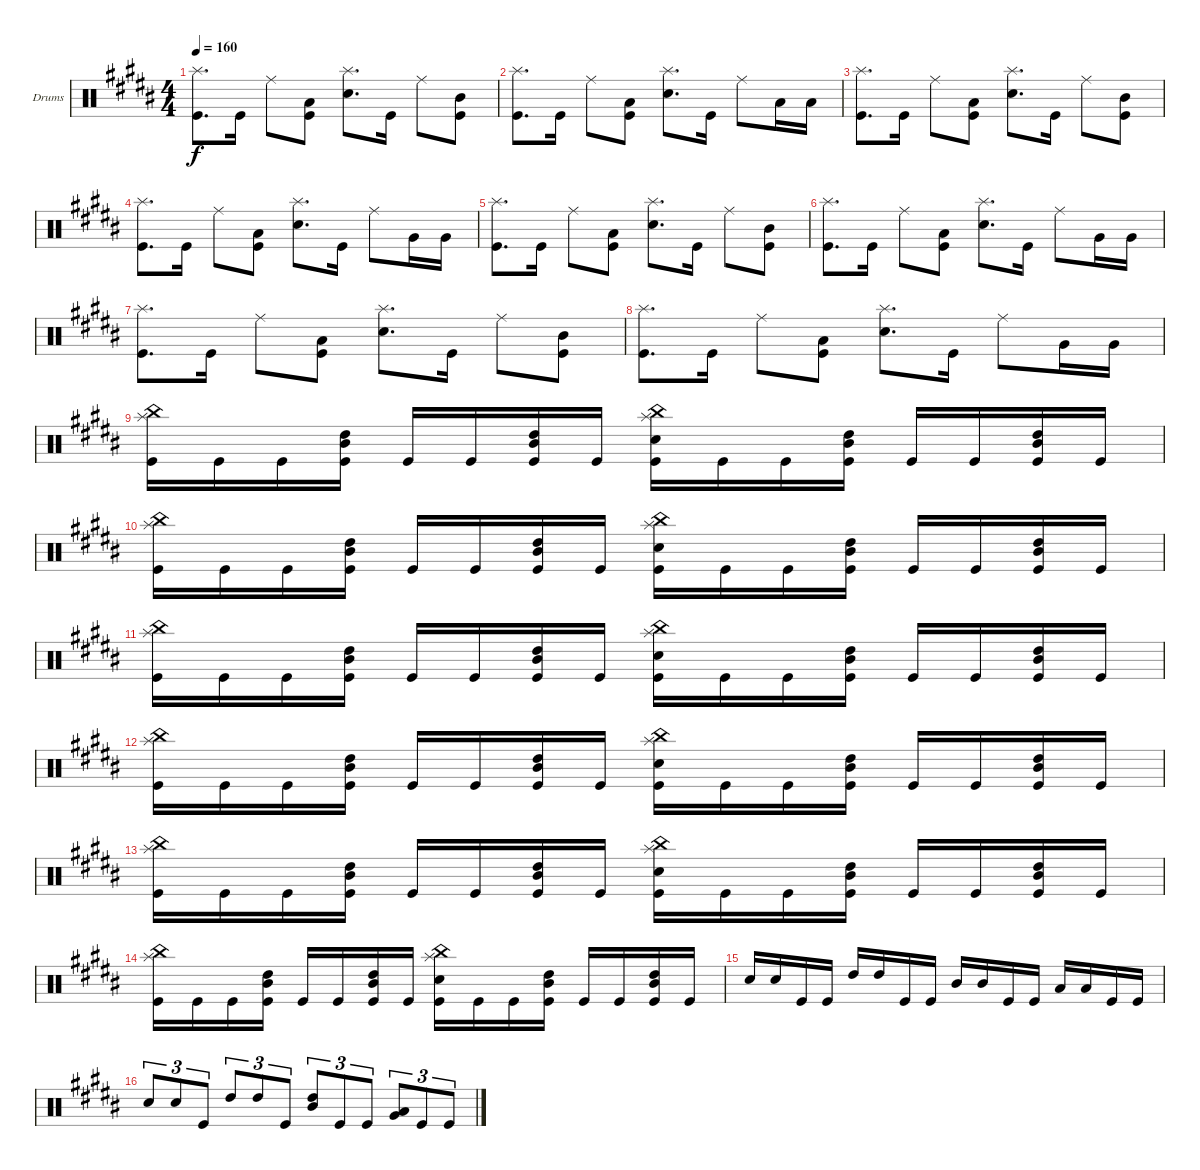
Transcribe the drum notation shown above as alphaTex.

\defaultSystemsLayout 4
\bracketExtendMode groupsimilarinstruments
\firstSystemTrackNameOrientation horizontal
\otherSystemsTrackNameOrientation horizontal
\track ("Drumkit" "Drums") {instrument percussion}
\staff {score}
\articulation defaults
\ts (4 4)
\tempo 160
\clef neutral
\scale
0.549407
\ks b
("Splash (hit)" "Kick (hit)").8{d dy f} "Kick (hit)".16 "Ride (middle)".8 ("Kick (hit)" "Low Tom (hit)").8 ("Snare (hit) 2" "Splash (hit)").8{d} "Kick (hit)".16 "Ride (middle)".8 ("Kick (hit)" "Mid Tom (hit)").8 |
\scale
0.225296 ("Splash (hit)" "Kick (hit)").8{d} "Kick (hit)".16 "Ride (middle)".8 ("Kick (hit)" "Low Tom (hit)").8 ("Snare (hit) 2" "Splash (hit)").8{d} "Kick (hit)".16 "Ride (middle)".8 "Low Tom (hit)".16 "Low Tom (hit)".16 |
\scale
0.225296 ("Splash (hit)" "Kick (hit)").8{d} "Kick (hit)".16 "Ride (middle)".8 ("Kick (hit)" "Low Tom (hit)").8 ("Snare (hit) 2" "Splash (hit)").8{d} "Kick (hit)".16 "Ride (middle)".8 ("Kick (hit)" "Mid Tom (hit)").8 |
\scale
0.333333 ("Splash (hit)" "Kick (hit)").8{d} "Kick (hit)".16 "Ride (middle)".8 ("Kick (hit)" "Low Tom (hit)").8 ("Snare (hit) 2" "Splash (hit)").8{d} "Kick (hit)".16 "Ride (middle)".8 "Very Low Tom (hit)".16 "Very Low Tom (hit)".16 |
\scale
0.333333 ("Splash (hit)" "Kick (hit)").8{d} "Kick (hit)".16 "Ride (middle)".8 ("Kick (hit)" "Low Tom (hit)").8 ("Snare (hit) 2" "Splash (hit)").8{d} "Kick (hit)".16 "Ride (middle)".8 ("Kick (hit)" "Mid Tom (hit)").8 |
\scale
0.333333 ("Splash (hit)" "Kick (hit)").8{d} "Kick (hit)".16 "Ride (middle)".8 ("Kick (hit)" "Low Tom (hit)").8 ("Snare (hit) 2" "Splash (hit)").8{d} "Kick (hit)".16 "Ride (middle)".8 "Very Low Tom (hit)".16 "Very Low Tom (hit)".16 |
\scale
0.333333 ("Splash (hit)" "Kick (hit)").8{d} "Kick (hit)".16 "Ride (middle)".8 ("Kick (hit)" "Low Tom (hit)").8 ("Snare (hit) 2" "Splash (hit)").8{d} "Kick (hit)".16 "Ride (middle)".8 ("Kick (hit)" "Mid Tom (hit)").8 |
\scale
0.333333 ("Splash (hit)" "Kick (hit)").8{d} "Kick (hit)".16 "Ride (middle)".8 ("Kick (hit)" "Low Tom (hit)").8 ("Snare (hit) 2" "Splash (hit)").8{d} "Kick (hit)".16 "Ride (middle)".8 "Very Low Tom (hit)".16 "Very Low Tom (hit)".16 |
\scale
0.333333 ("Kick (hit)" "Splash (hit)" "China (hit)").16 "Kick (hit)".16 "Kick (hit)".16 ("Kick (hit)" "Mid Tom (hit)" "High Tom (hit)").16 "Kick (hit)".16 "Kick (hit)".16 ("Kick (hit)" "Mid Tom (hit)" "High Tom (hit)").16 "Kick (hit)".16 ("Kick (hit)" "China (hit)" "Splash (hit)" "Snare (hit) 2").16 "Kick (hit)".16 "Kick (hit)".16 ("Kick (hit)" "High Tom (hit)" "Mid Tom (hit)").16 "Kick (hit)".16 "Kick (hit)".16 ("Kick (hit)" "Mid Tom (hit)" "High Tom (hit)").16 "Kick (hit)".16 |
\scale
0.333333 ("Kick (hit)" "Splash (hit)" "China (hit)").16 "Kick (hit)".16 "Kick (hit)".16 ("Kick (hit)" "Mid Tom (hit)" "High Tom (hit)").16 "Kick (hit)".16 "Kick (hit)".16 ("Kick (hit)" "Mid Tom (hit)" "High Tom (hit)").16 "Kick (hit)".16 ("Kick (hit)" "China (hit)" "Splash (hit)" "Snare (hit) 2").16 "Kick (hit)".16 "Kick (hit)".16 ("Kick (hit)" "High Tom (hit)" "Mid Tom (hit)").16 "Kick (hit)".16 "Kick (hit)".16 ("Kick (hit)" "Mid Tom (hit)" "High Tom (hit)").16 "Kick (hit)".16 |
\scale
0.333333 ("Kick (hit)" "Splash (hit)" "China (hit)").16 "Kick (hit)".16 "Kick (hit)".16 ("Kick (hit)" "Mid Tom (hit)" "High Tom (hit)").16 "Kick (hit)".16 "Kick (hit)".16 ("Kick (hit)" "Mid Tom (hit)" "High Tom (hit)").16 "Kick (hit)".16 ("Kick (hit)" "China (hit)" "Splash (hit)" "Snare (hit) 2").16 "Kick (hit)".16 "Kick (hit)".16 ("Kick (hit)" "High Tom (hit)" "Mid Tom (hit)").16 "Kick (hit)".16 "Kick (hit)".16 ("Kick (hit)" "Mid Tom (hit)" "High Tom (hit)").16 "Kick (hit)".16 |
\scale
0.333333 ("Kick (hit)" "Splash (hit)" "China (hit)").16 "Kick (hit)".16 "Kick (hit)".16 ("Kick (hit)" "Mid Tom (hit)" "High Tom (hit)").16 "Kick (hit)".16 "Kick (hit)".16 ("Kick (hit)" "Mid Tom (hit)" "High Tom (hit)").16 "Kick (hit)".16 ("Kick (hit)" "China (hit)" "Splash (hit)" "Snare (hit) 2").16 "Kick (hit)".16 "Kick (hit)".16 ("Kick (hit)" "High Tom (hit)" "Mid Tom (hit)").16 "Kick (hit)".16 "Kick (hit)".16 ("Kick (hit)" "Mid Tom (hit)" "High Tom (hit)").16 "Kick (hit)".16 |
\scale
0.333333 ("Kick (hit)" "Splash (hit)" "China (hit)").16 "Kick (hit)".16 "Kick (hit)".16 ("Kick (hit)" "Mid Tom (hit)" "High Tom (hit)").16 "Kick (hit)".16 "Kick (hit)".16 ("Kick (hit)" "Mid Tom (hit)" "High Tom (hit)").16 "Kick (hit)".16 ("Kick (hit)" "China (hit)" "Splash (hit)" "Snare (hit) 2").16 "Kick (hit)".16 "Kick (hit)".16 ("Kick (hit)" "High Tom (hit)" "Mid Tom (hit)").16 "Kick (hit)".16 "Kick (hit)".16 ("Kick (hit)" "Mid Tom (hit)" "High Tom (hit)").16 "Kick (hit)".16 |
\scale
0.333333 ("Kick (hit)" "Splash (hit)" "China (hit)").16 "Kick (hit)".16 "Kick (hit)".16 ("Kick (hit)" "Mid Tom (hit)" "High Tom (hit)").16 "Kick (hit)".16 "Kick (hit)".16 ("Kick (hit)" "Mid Tom (hit)" "High Tom (hit)").16 "Kick (hit)".16 ("Kick (hit)" "China (hit)" "Splash (hit)" "Snare (hit) 2").16 "Kick (hit)".16 "Kick (hit)".16 ("Kick (hit)" "High Tom (hit)" "Mid Tom (hit)").16 "Kick (hit)".16 "Kick (hit)".16 ("Kick (hit)" "Mid Tom (hit)" "High Tom (hit)").16 "Kick (hit)".16 |
\scale
0.333333 "Snare (hit) 2".16 "Snare (hit) 2".16 "Kick (hit)".16 "Kick (hit)".16 "High Tom (hit)".16 "High Tom (hit)".16 "Kick (hit)".16 "Kick (hit)".16 "Mid Tom (hit)".16 "Mid Tom (hit)".16 "Kick (hit)".16 "Kick (hit)".16 "Low Tom (hit)".16 "Low Tom (hit)".16 "Kick (hit)".16 "Kick (hit)".16 |
\scale
0.333333 "Snare (hit) 2".8{tu (3 2)} "Snare (hit) 2".8{tu (3 2)} "Kick (hit)".8{tu (3 2)} "High Tom (hit)".8{tu (3 2)} "High Tom (hit)".8{tu (3 2)} "Kick (hit)".8{tu (3 2)} ("Mid Tom (hit)" "High Tom (hit)").8{tu (3 2)} "Kick (hit)".8{tu (3 2)} "Kick (hit)".8{tu (3 2)} ("Low Tom (hit)" "Very Low Tom (hit)").8{tu (3 2)} "Kick (hit)".8{tu (3 2)} "Kick (hit)".8{tu (3 2)}
